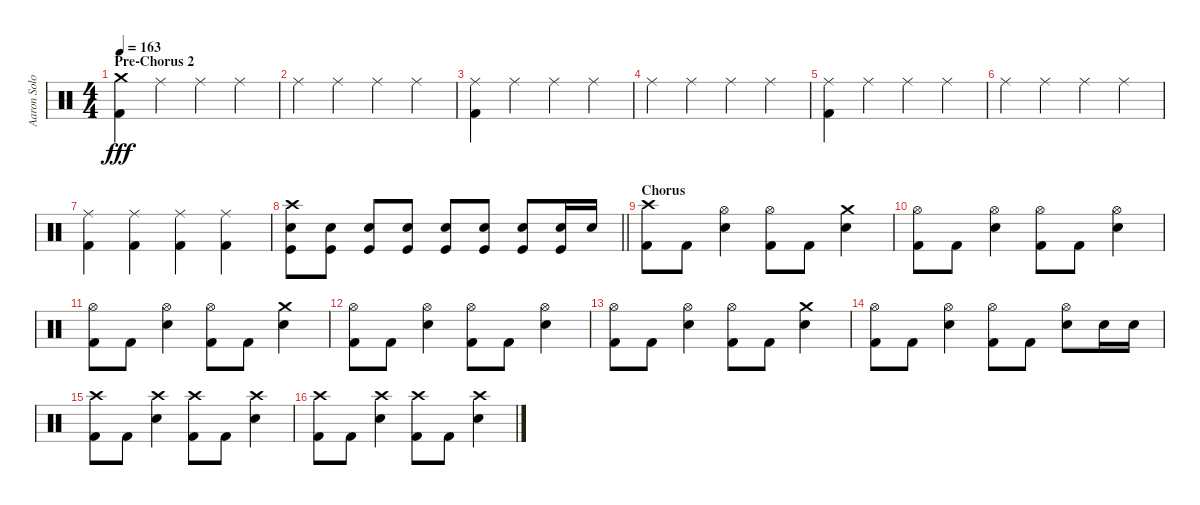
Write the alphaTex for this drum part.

\track ("Aaron Solowoniuk - Schlagzeug" "Aaron Solo") {instrument percussion}
\staff {score}
\articulation defaults
\ts (4 4)
\section ("" "Pre-Chorus 2")
\tempo 163
\clef neutral
\ks c
("Crash medium (hit)" "Kick (hit) 2").4{dy fff} "Ride (middle)".4 "Ride (middle)".4 "Ride (middle)".4 |
"Ride (middle)".4 "Ride (middle)".4 "Ride (middle)".4 "Ride (middle)".4 |
("Ride (middle)" "Kick (hit) 2").4 "Ride (middle)".4 "Ride (middle)".4 "Ride (middle)".4 |
"Ride (middle)".4 "Ride (middle)".4 "Ride (middle)".4 "Ride (middle)".4 |
("Ride (middle)" "Kick (hit) 2").4 "Ride (middle)".4 "Ride (middle)".4 "Ride (middle)".4 |
"Ride (middle)".4 "Ride (middle)".4 "Ride (middle)".4 "Ride (middle)".4 |
("Ride (middle)" "Kick (hit) 2").4 ("Ride (middle)" "Kick (hit) 2").4 ("Ride (middle)" "Kick (hit) 2").4 ("Ride (middle)" "Kick (hit) 2").4 |
\barLineRight lightlight
("Crash high (hit)" "Electric Snare (hit)" "Kick (hit)").8 ("Electric Snare (hit)" "Kick (hit)").8 ("Electric Snare (hit)" "Kick (hit)").8 ("Electric Snare (hit)" "Kick (hit)").8 ("Electric Snare (hit)" "Kick (hit)").8 ("Electric Snare (hit)" "Kick (hit)").8 ("Electric Snare (hit)" "Kick (hit)").8 ("Electric Snare (hit)" "Kick (hit)").16 "Electric Snare (hit)".16 |
\section ("" "Chorus")
("Crash high (hit)" "Kick (hit) 2").8 "Kick (hit) 2".8 ("Hi-Hat (open)" "Electric Snare (hit)").4 ("Hi-Hat (open)" "Kick (hit) 2").8 "Kick (hit) 2".8 ("Crash medium (hit)" "Electric Snare (hit)").4 |
("Hi-Hat (open)" "Kick (hit) 2").8 "Kick (hit) 2".8 ("Hi-Hat (open)" "Electric Snare (hit)").4 ("Hi-Hat (open)" "Kick (hit) 2").8 "Kick (hit) 2".8 ("Hi-Hat (open)" "Electric Snare (hit)").4 |
("Hi-Hat (open)" "Kick (hit) 2").8 "Kick (hit) 2".8 ("Hi-Hat (open)" "Electric Snare (hit)").4 ("Hi-Hat (open)" "Kick (hit) 2").8 "Kick (hit) 2".8 ("Crash medium (hit)" "Electric Snare (hit)").4 |
("Hi-Hat (open)" "Kick (hit) 2").8 "Kick (hit) 2".8 ("Hi-Hat (open)" "Electric Snare (hit)").4 ("Hi-Hat (open)" "Kick (hit) 2").8 "Kick (hit) 2".8 ("Hi-Hat (open)" "Electric Snare (hit)").4 |
("Hi-Hat (open)" "Kick (hit) 2").8 "Kick (hit) 2".8 ("Hi-Hat (open)" "Electric Snare (hit)").4 ("Hi-Hat (open)" "Kick (hit) 2").8 "Kick (hit) 2".8 ("Crash medium (hit)" "Electric Snare (hit)").4 |
("Hi-Hat (open)" "Kick (hit) 2").8 "Kick (hit) 2".8 ("Hi-Hat (open)" "Electric Snare (hit)").4 ("Hi-Hat (open)" "Kick (hit) 2").8 "Kick (hit) 2".8 ("Hi-Hat (open)" "Electric Snare (hit)").8 "Electric Snare (hit)".16 "Electric Snare (hit)".16 |
("Crash high (hit)" "Kick (hit) 2").8 "Kick (hit) 2".8 ("Crash high (hit)" "Electric Snare (hit)").4 ("Crash high (hit)" "Kick (hit) 2").8 "Kick (hit) 2".8 ("Crash high (hit)" "Electric Snare (hit)").4 |
("Crash high (hit)" "Kick (hit) 2").8 "Kick (hit) 2".8 ("Crash high (hit)" "Electric Snare (hit)").4 ("Crash high (hit)" "Kick (hit) 2").8 "Kick (hit) 2".8 ("Crash high (hit)" "Electric Snare (hit)").4
